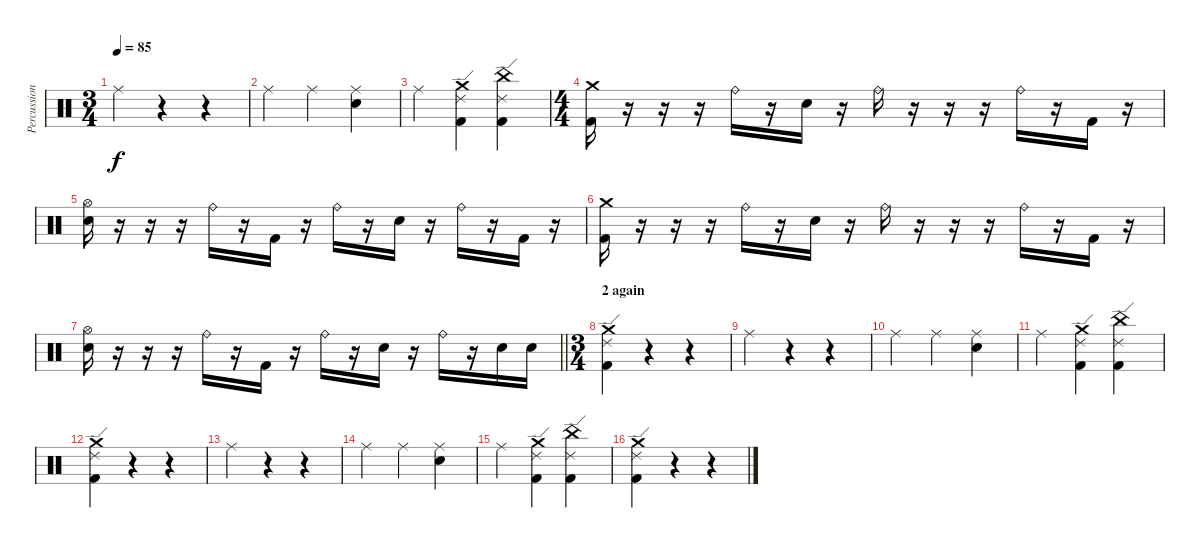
\track ("Percussion" "Percussion") {instrument percussion}
\staff {score}
\articulation defaults
\ts (3 4)
\tempo 85
\clef neutral
\ks c "Ride (middle)".4{dy f}
r.4 r.4 |
"Ride (middle)".4 "Ride (middle)".4 ("Ride (middle)" "Electric Snare (hit)").4 |
"Ride (middle)".4 ("Crash medium (hit)" "Ride (edge) 2" "Kick (hit) 2").4 ("China (hit)" "Ride (edge) 2" "Kick (hit) 2").4 |
\ts (4 4)
("Crash medium (hit)" "Kick (hit) 2").16 r.16 r.16 r.16 "Ride (bell)".16 r.16 "Electric Snare (hit)".16 r.16 "Ride (bell)".16 r.16 r.16 r.16 "Ride (bell)".16 r.16 "Kick (hit) 2".16 r.16 |
("Hi-Hat (open)" "Electric Snare (hit)").16 r.16 r.16 r.16 "Ride (bell)".16 r.16 "Kick (hit) 2".16 r.16 "Ride (bell)".16 r.16 "Electric Snare (hit)".16 r.16 "Ride (bell)".16 r.16 "Kick (hit) 2".16 r.16 |
("Crash medium (hit)" "Kick (hit) 2").16 r.16 r.16 r.16 "Ride (bell)".16 r.16 "Electric Snare (hit)".16 r.16 "Ride (bell)".16 r.16 r.16 r.16 "Ride (bell)".16 r.16 "Kick (hit) 2".16 r.16 |
\barLineRight lightlight
("Hi-Hat (open)" "Electric Snare (hit)").16 r.16 r.16 r.16 "Ride (bell)".16 r.16 "Kick (hit) 2".16 r.16 "Ride (bell)".16 r.16 "Electric Snare (hit)".16 r.16 "Ride (bell)".16 r.16 "Electric Snare (hit)".16 "Electric Snare (hit)".16 |
\ts (3 4)
\section ("" "2 again")
("Crash medium (hit)" "Ride (edge) 2" "Kick (hit) 2").4 r.4 r.4 |
"Ride (middle)".4 r.4 r.4 |
"Ride (middle)".4 "Ride (middle)".4 ("Ride (middle)" "Electric Snare (hit)").4 |
"Ride (middle)".4 ("Crash medium (hit)" "Ride (edge) 2" "Kick (hit) 2").4 ("China (hit)" "Ride (edge) 2" "Kick (hit) 2").4 |
("Crash medium (hit)" "Ride (edge) 2" "Kick (hit) 2").4 r.4 r.4 |
"Ride (middle)".4 r.4 r.4 |
"Ride (middle)".4 "Ride (middle)".4 ("Ride (middle)" "Electric Snare (hit)").4 |
"Ride (middle)".4 ("Crash medium (hit)" "Ride (edge) 2" "Kick (hit) 2").4 ("China (hit)" "Ride (edge) 2" "Kick (hit) 2").4 |
("Crash medium (hit)" "Ride (edge) 2" "Kick (hit) 2").4 r.4 r.4
